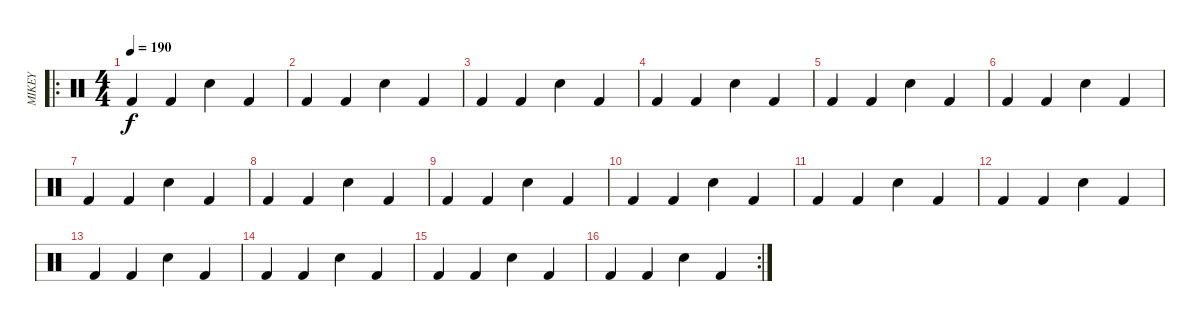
\track ("MIKEY" "MIKEY") {instrument percussion}
\staff {score}
\articulation defaults
\ro
\ts (4 4)
\tempo 190
\clef neutral
\ks c "Kick (hit) 2".4{dy f} "Kick (hit) 2".4 "Snare (hit) 2".4 "Kick (hit) 2".4
|
"Kick (hit) 2".4 "Kick (hit) 2".4 "Snare (hit) 2".4 "Kick (hit) 2".4 |
"Kick (hit) 2".4 "Kick (hit) 2".4 "Snare (hit) 2".4 "Kick (hit) 2".4 |
"Kick (hit) 2".4 "Kick (hit) 2".4 "Snare (hit) 2".4 "Kick (hit) 2".4 |
"Kick (hit) 2".4 "Kick (hit) 2".4 "Snare (hit) 2".4 "Kick (hit) 2".4 |
"Kick (hit) 2".4 "Kick (hit) 2".4 "Snare (hit) 2".4 "Kick (hit) 2".4 |
"Kick (hit) 2".4 "Kick (hit) 2".4 "Snare (hit) 2".4 "Kick (hit) 2".4 |
"Kick (hit) 2".4 "Kick (hit) 2".4 "Snare (hit) 2".4 "Kick (hit) 2".4 |
"Kick (hit) 2".4 "Kick (hit) 2".4 "Snare (hit) 2".4 "Kick (hit) 2".4 |
"Kick (hit) 2".4 "Kick (hit) 2".4 "Snare (hit) 2".4 "Kick (hit) 2".4 |
"Kick (hit) 2".4 "Kick (hit) 2".4 "Snare (hit) 2".4 "Kick (hit) 2".4 |
"Kick (hit) 2".4 "Kick (hit) 2".4 "Snare (hit) 2".4 "Kick (hit) 2".4 |
"Kick (hit) 2".4 "Kick (hit) 2".4 "Snare (hit) 2".4 "Kick (hit) 2".4 |
"Kick (hit) 2".4 "Kick (hit) 2".4 "Snare (hit) 2".4 "Kick (hit) 2".4 |
"Kick (hit) 2".4 "Kick (hit) 2".4 "Snare (hit) 2".4 "Kick (hit) 2".4 |
\rc 2 "Kick (hit) 2".4 "Kick (hit) 2".4 "Snare (hit) 2".4 "Kick (hit) 2".4
